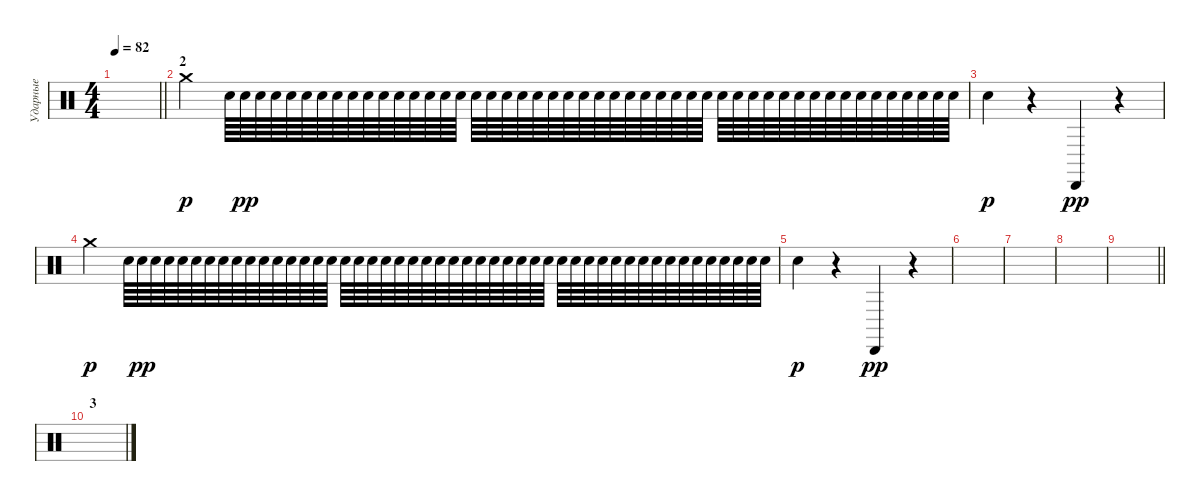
\track ("Ударные" "Ударные") {mute instrument percussion}
\staff {score}
\articulation defaults
\ts (4 4)
\tempo 82
\clef neutral
\barLineRight lightlight
\ks c
|
\section ("" "2")
"Crash medium (hit)".4{dy p} "Electric Snare (hit)".64 "Electric Snare (hit)".64{dy pp} "Electric Snare (hit)".64 "Electric Snare (hit)".64 "Electric Snare (hit)".64 "Electric Snare (hit)".64 "Electric Snare (hit)".64 "Electric Snare (hit)".64 "Electric Snare (hit)".64 "Electric Snare (hit)".64 "Electric Snare (hit)".64 "Electric Snare (hit)".64 "Electric Snare (hit)".64 "Electric Snare (hit)".64 "Electric Snare (hit)".64 "Electric Snare (hit)".64 "Electric Snare (hit)".64 "Electric Snare (hit)".64 "Electric Snare (hit)".64 "Electric Snare (hit)".64 "Electric Snare (hit)".64 "Electric Snare (hit)".64 "Electric Snare (hit)".64 "Electric Snare (hit)".64 "Electric Snare (hit)".64 "Electric Snare (hit)".64 "Electric Snare (hit)".64 "Electric Snare (hit)".64 "Electric Snare (hit)".64 "Electric Snare (hit)".64 "Electric Snare (hit)".64 "Electric Snare (hit)".64 "Electric Snare (hit)".64 "Electric Snare (hit)".64 "Electric Snare (hit)".64 "Electric Snare (hit)".64 "Electric Snare (hit)".64 "Electric Snare (hit)".64 "Electric Snare (hit)".64 "Electric Snare (hit)".64 "Electric Snare (hit)".64 "Electric Snare (hit)".64 "Electric Snare (hit)".64 "Electric Snare (hit)".64 "Electric Snare (hit)".64 "Electric Snare (hit)".64 "Electric Snare (hit)".64 "Electric Snare (hit)".64 |
"Snare (hit) 2".4{dy p} r.4 "Cabasa (hit)".4{dy pp} r.4 |
"Crash medium (hit)".4{dy p} "Electric Snare (hit)".64 "Electric Snare (hit)".64{dy pp} "Electric Snare (hit)".64 "Electric Snare (hit)".64 "Electric Snare (hit)".64 "Electric Snare (hit)".64 "Electric Snare (hit)".64 "Electric Snare (hit)".64 "Electric Snare (hit)".64 "Electric Snare (hit)".64 "Electric Snare (hit)".64 "Electric Snare (hit)".64 "Electric Snare (hit)".64 "Electric Snare (hit)".64 "Electric Snare (hit)".64 "Electric Snare (hit)".64 "Electric Snare (hit)".64 "Electric Snare (hit)".64 "Electric Snare (hit)".64 "Electric Snare (hit)".64 "Electric Snare (hit)".64 "Electric Snare (hit)".64 "Electric Snare (hit)".64 "Electric Snare (hit)".64 "Electric Snare (hit)".64 "Electric Snare (hit)".64 "Electric Snare (hit)".64 "Electric Snare (hit)".64 "Electric Snare (hit)".64 "Electric Snare (hit)".64 "Electric Snare (hit)".64 "Electric Snare (hit)".64 "Electric Snare (hit)".64 "Electric Snare (hit)".64 "Electric Snare (hit)".64 "Electric Snare (hit)".64 "Electric Snare (hit)".64 "Electric Snare (hit)".64 "Electric Snare (hit)".64 "Electric Snare (hit)".64 "Electric Snare (hit)".64 "Electric Snare (hit)".64 "Electric Snare (hit)".64 "Electric Snare (hit)".64 "Electric Snare (hit)".64 "Electric Snare (hit)".64 "Electric Snare (hit)".64 "Electric Snare (hit)".64 |
"Snare (hit) 2".4{dy p} r.4 "Cabasa (hit)".4{dy pp} r.4 |
|
|
|
\barLineRight lightlight
|
\section ("" "3")
